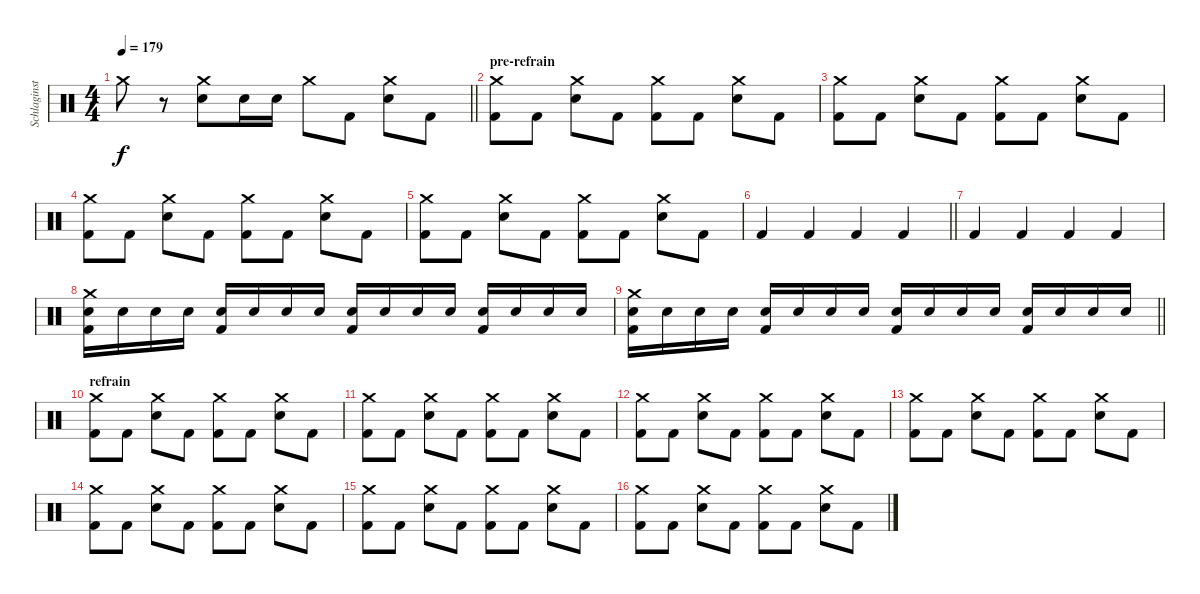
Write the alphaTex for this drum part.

\track ("Schlaginstrumente - Auswahl" "Schlaginst") {instrument percussion}
\staff {score}
\articulation defaults
\ts (4 4)
\tempo 179
\clef neutral
\barLineRight lightlight
\ks c "Crash medium (hit)".8{dy f}
r.8 ("Crash medium (hit)" "Electric Snare (hit)").8 "Electric Snare (hit)".16 "Electric Snare (hit)".16 "Crash medium (hit)".8 "Kick (hit) 2".8 ("Crash medium (hit)" "Electric Snare (hit)").8 "Kick (hit) 2".8 |
\section ("" "pre-refrain")
("Crash medium (hit)" "Kick (hit) 2").8 "Kick (hit) 2".8 ("Crash medium (hit)" "Electric Snare (hit)").8 "Kick (hit) 2".8 ("Crash medium (hit)" "Kick (hit) 2").8 "Kick (hit) 2".8 ("Crash medium (hit)" "Electric Snare (hit)").8 "Kick (hit) 2".8 |
("Crash medium (hit)" "Kick (hit) 2").8 "Kick (hit) 2".8 ("Crash medium (hit)" "Electric Snare (hit)").8 "Kick (hit) 2".8 ("Crash medium (hit)" "Kick (hit) 2").8 "Kick (hit) 2".8 ("Crash medium (hit)" "Electric Snare (hit)").8 "Kick (hit) 2".8 |
("Crash medium (hit)" "Kick (hit) 2").8 "Kick (hit) 2".8 ("Crash medium (hit)" "Electric Snare (hit)").8 "Kick (hit) 2".8 ("Crash medium (hit)" "Kick (hit) 2").8 "Kick (hit) 2".8 ("Crash medium (hit)" "Electric Snare (hit)").8 "Kick (hit) 2".8 |
("Crash medium (hit)" "Kick (hit) 2").8 "Kick (hit) 2".8 ("Crash medium (hit)" "Electric Snare (hit)").8 "Kick (hit) 2".8 ("Crash medium (hit)" "Kick (hit) 2").8 "Kick (hit) 2".8 ("Crash medium (hit)" "Electric Snare (hit)").8 "Kick (hit) 2".8 |
\barLineRight lightlight "Kick (hit) 2".4 "Kick (hit) 2".4 "Kick (hit) 2".4 "Kick (hit) 2".4
|
\section ("" "")
"Kick (hit) 2".4 "Kick (hit) 2".4 "Kick (hit) 2".4 "Kick (hit) 2".4 |
("Crash medium (hit)" "Electric Snare (hit)" "Kick (hit) 2").16 "Electric Snare (hit)".16{volume 0} "Electric Snare (hit)".16{volume 13} "Electric Snare (hit)".16 ("Electric Snare (hit)" "Kick (hit) 2").16{volume 13} "Electric Snare (hit)".16 "Electric Snare (hit)".16 "Electric Snare (hit)".16 ("Electric Snare (hit)" "Kick (hit) 2").16{volume 13} "Electric Snare (hit)".16 "Electric Snare (hit)".16 "Electric Snare (hit)".16 ("Electric Snare (hit)" "Kick (hit) 2").16{volume 13} "Electric Snare (hit)".16 "Electric Snare (hit)".16 "Electric Snare (hit)".16 |
\barLineRight lightlight
("Crash medium (hit)" "Electric Snare (hit)" "Kick (hit) 2").16 "Electric Snare (hit)".16{volume 0} "Electric Snare (hit)".16{volume 13} "Electric Snare (hit)".16 ("Electric Snare (hit)" "Kick (hit) 2").16{volume 13} "Electric Snare (hit)".16 "Electric Snare (hit)".16 "Electric Snare (hit)".16 ("Electric Snare (hit)" "Kick (hit) 2").16{volume 13} "Electric Snare (hit)".16 "Electric Snare (hit)".16 "Electric Snare (hit)".16 ("Electric Snare (hit)" "Kick (hit) 2").16{volume 13} "Electric Snare (hit)".16 "Electric Snare (hit)".16 "Electric Snare (hit)".16 |
\section ("" "refrain")
("Crash medium (hit)" "Kick (hit) 2").8 "Kick (hit) 2".8 ("Crash medium (hit)" "Electric Snare (hit)").8 "Kick (hit) 2".8 ("Crash medium (hit)" "Kick (hit) 2").8 "Kick (hit) 2".8 ("Crash medium (hit)" "Electric Snare (hit)").8 "Kick (hit) 2".8 |
("Crash medium (hit)" "Kick (hit) 2").8 "Kick (hit) 2".8 ("Crash medium (hit)" "Electric Snare (hit)").8 "Kick (hit) 2".8 ("Crash medium (hit)" "Kick (hit) 2").8 "Kick (hit) 2".8 ("Crash medium (hit)" "Electric Snare (hit)").8 "Kick (hit) 2".8 |
("Crash medium (hit)" "Kick (hit) 2").8 "Kick (hit) 2".8 ("Crash medium (hit)" "Electric Snare (hit)").8 "Kick (hit) 2".8 ("Crash medium (hit)" "Kick (hit) 2").8 "Kick (hit) 2".8 ("Crash medium (hit)" "Electric Snare (hit)").8 "Kick (hit) 2".8 |
("Crash medium (hit)" "Kick (hit) 2").8 "Kick (hit) 2".8 ("Crash medium (hit)" "Electric Snare (hit)").8 "Kick (hit) 2".8 ("Crash medium (hit)" "Kick (hit) 2").8 "Kick (hit) 2".8 ("Crash medium (hit)" "Electric Snare (hit)").8 "Kick (hit) 2".8 |
("Crash medium (hit)" "Kick (hit) 2").8 "Kick (hit) 2".8 ("Crash medium (hit)" "Electric Snare (hit)").8 "Kick (hit) 2".8 ("Crash medium (hit)" "Kick (hit) 2").8 "Kick (hit) 2".8 ("Crash medium (hit)" "Electric Snare (hit)").8 "Kick (hit) 2".8 |
("Crash medium (hit)" "Kick (hit) 2").8 "Kick (hit) 2".8 ("Crash medium (hit)" "Electric Snare (hit)").8 "Kick (hit) 2".8 ("Crash medium (hit)" "Kick (hit) 2").8 "Kick (hit) 2".8 ("Crash medium (hit)" "Electric Snare (hit)").8 "Kick (hit) 2".8 |
("Crash medium (hit)" "Kick (hit) 2").8 "Kick (hit) 2".8 ("Crash medium (hit)" "Electric Snare (hit)").8 "Kick (hit) 2".8 ("Crash medium (hit)" "Kick (hit) 2").8 "Kick (hit) 2".8 ("Crash medium (hit)" "Electric Snare (hit)").8 "Kick (hit) 2".8
